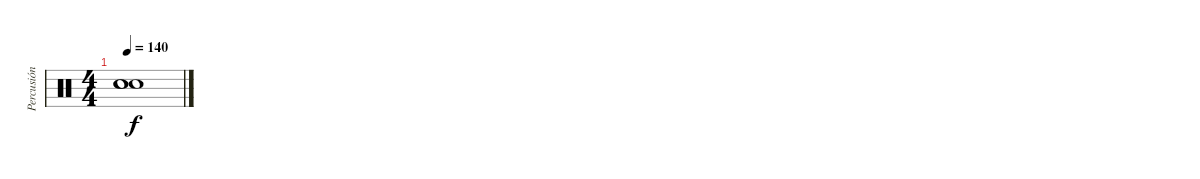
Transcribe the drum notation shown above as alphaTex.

\track ("Percusión" "Percusión") {instrument percussion}
\staff {score}
\articulation defaults
\ts (4 4)
\tempo 140
\clef neutral
\ks c
("Snare (hit)"{t} "Snare (hit)"{t} "Snare (hit)"{t}).1{dy f}
